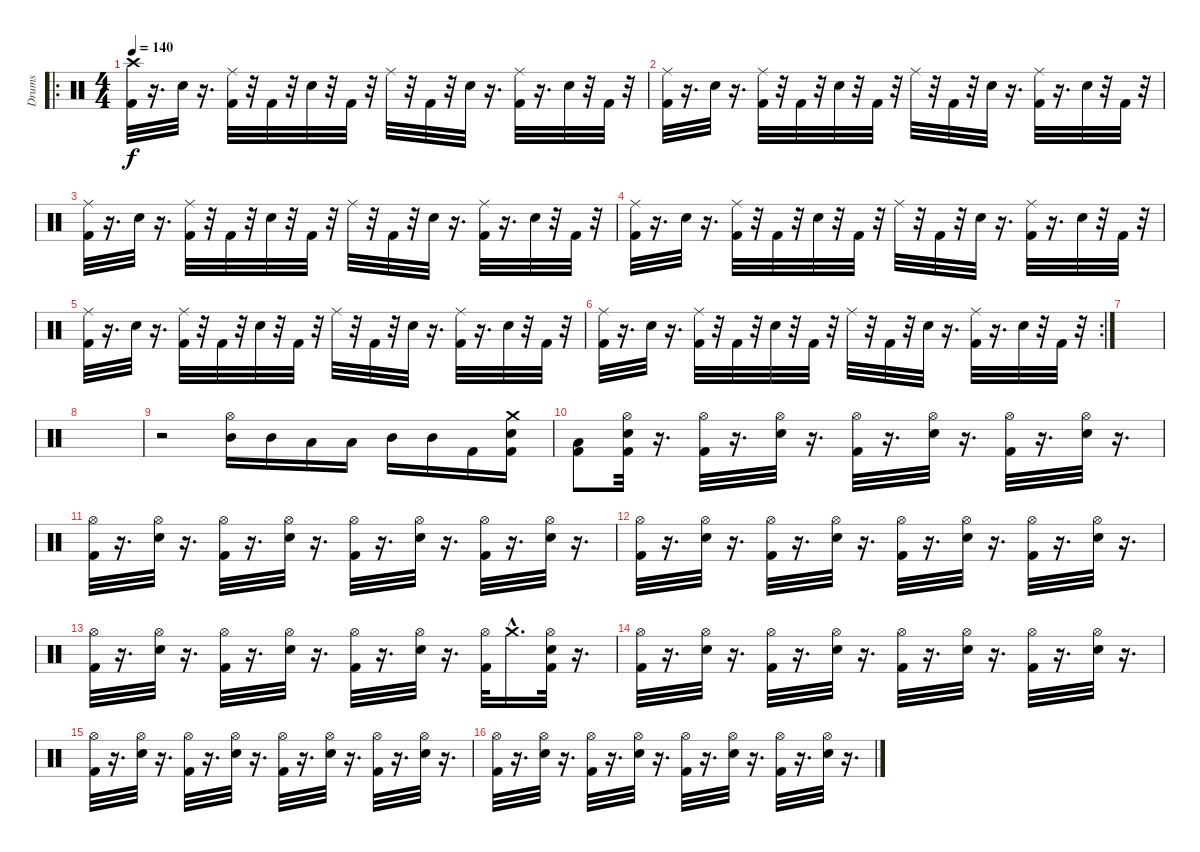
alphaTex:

\track ("Drums" "Drums") {instrument percussion}
\staff {score}
\articulation defaults
\ro
\ts (4 4)
\tempo 140
\clef neutral
\ks c
("Crash high (hit)" "Kick (hit) 2").32{dy f} r.16{d} "Electric Snare (hit)".32 r.16{d} ("Kick (hit) 2" "Ride (middle)").32 r.32 "Kick (hit) 2".32 r.32 "Electric Snare (hit)".32 r.32 "Kick (hit) 2".32 r.32 "Ride (middle)".32 r.32 "Kick (hit) 2".32 r.32 "Electric Snare (hit)".32 r.16{d} ("Kick (hit) 2" "Ride (middle)").32 r.16{d} "Electric Snare (hit)".32 r.32 "Kick (hit) 2".32 r.32 |
("Ride (middle)" "Kick (hit) 2").32 r.16{d} "Electric Snare (hit)".32 r.16{d} ("Kick (hit) 2" "Ride (middle)").32 r.32 "Kick (hit) 2".32 r.32 "Electric Snare (hit)".32 r.32 "Kick (hit) 2".32 r.32 "Ride (middle)".32 r.32 "Kick (hit) 2".32 r.32 "Electric Snare (hit)".32 r.16{d} ("Kick (hit) 2" "Ride (middle)").32 r.16{d} "Electric Snare (hit)".32 r.32 "Kick (hit) 2".32 r.32 |
("Ride (middle)" "Kick (hit) 2").32 r.16{d} "Electric Snare (hit)".32 r.16{d} ("Kick (hit) 2" "Ride (middle)").32 r.32 "Kick (hit) 2".32 r.32 "Electric Snare (hit)".32 r.32 "Kick (hit) 2".32 r.32 "Ride (middle)".32 r.32 "Kick (hit) 2".32 r.32 "Electric Snare (hit)".32 r.16{d} ("Kick (hit) 2" "Ride (middle)").32 r.16{d} "Electric Snare (hit)".32 r.32 "Kick (hit) 2".32 r.32 |
("Ride (middle)" "Kick (hit) 2").32 r.16{d} "Electric Snare (hit)".32 r.16{d} ("Kick (hit) 2" "Ride (middle)").32 r.32 "Kick (hit) 2".32 r.32 "Electric Snare (hit)".32 r.32 "Kick (hit) 2".32 r.32 "Ride (middle)".32 r.32 "Kick (hit) 2".32 r.32 "Electric Snare (hit)".32 r.16{d} ("Kick (hit) 2" "Ride (middle)").32 r.16{d} "Electric Snare (hit)".32 r.32 "Kick (hit) 2".32 r.32 |
("Ride (middle)" "Kick (hit) 2").32 r.16{d} "Electric Snare (hit)".32 r.16{d} ("Kick (hit) 2" "Ride (middle)").32 r.32 "Kick (hit) 2".32 r.32 "Electric Snare (hit)".32 r.32 "Kick (hit) 2".32 r.32 "Ride (middle)".32 r.32 "Kick (hit) 2".32 r.32 "Electric Snare (hit)".32 r.16{d} ("Kick (hit) 2" "Ride (middle)").32 r.16{d} "Electric Snare (hit)".32 r.32 "Kick (hit) 2".32 r.32 |
\rc 2
("Ride (middle)" "Kick (hit) 2").32 r.16{d} "Electric Snare (hit)".32 r.16{d} ("Kick (hit) 2" "Ride (middle)").32 r.32 "Kick (hit) 2".32 r.32 "Electric Snare (hit)".32 r.32 "Kick (hit) 2".32 r.32 "Ride (middle)".32 r.32 "Kick (hit) 2".32 r.32 "Electric Snare (hit)".32 r.16{d} ("Kick (hit) 2" "Ride (middle)").32 r.16{d} "Electric Snare (hit)".32 r.32 "Kick (hit) 2".32 r.32 |
|
|
r.2 ("Hi-Hat (open)" "Mid Tom (hit)").16 "Mid Tom (hit)".16 "Low Tom (hit)".16 "Low Tom (hit)".16 "Mid Tom (hit)".16 "Mid Tom (hit)".16 "Kick (hit) 2".16 ("Crash medium (hit)" "Electric Snare (hit)" "Kick (hit) 2").16 |
("Kick (hit) 2" "Low Tom (hit)").8 ("Hi-Hat (open)" "Kick (hit) 2" "Electric Snare (hit)").32 r.16{d} ("Hi-Hat (open)" "Kick (hit) 2").32 r.16{d} ("Hi-Hat (open)" "Electric Snare (hit)").32 r.16{d} ("Hi-Hat (open)" "Kick (hit) 2").32 r.16{d} ("Hi-Hat (open)" "Electric Snare (hit)").32 r.16{d} ("Hi-Hat (open)" "Kick (hit) 2").32 r.16{d} ("Hi-Hat (open)" "Electric Snare (hit)").32 r.16{d} |
("Hi-Hat (open)" "Kick (hit) 2").32 r.16{d} ("Hi-Hat (open)" "Electric Snare (hit)").32 r.16{d} ("Hi-Hat (open)" "Kick (hit) 2").32 r.16{d} ("Hi-Hat (open)" "Electric Snare (hit)").32 r.16{d} ("Hi-Hat (open)" "Kick (hit) 2").32 r.16{d} ("Hi-Hat (open)" "Electric Snare (hit)").32 r.16{d} ("Hi-Hat (open)" "Kick (hit) 2").32 r.16{d} ("Hi-Hat (open)" "Electric Snare (hit)").32 r.16{d} |
("Hi-Hat (open)" "Kick (hit) 2").32 r.16{d} ("Hi-Hat (open)" "Electric Snare (hit)").32 r.16{d} ("Hi-Hat (open)" "Kick (hit) 2").32 r.16{d} ("Hi-Hat (open)" "Electric Snare (hit)").32 r.16{d} ("Hi-Hat (open)" "Kick (hit) 2").32 r.16{d} ("Hi-Hat (open)" "Electric Snare (hit)").32 r.16{d} ("Hi-Hat (open)" "Kick (hit) 2").32 r.16{d} ("Hi-Hat (open)" "Electric Snare (hit)").32 r.16{d} |
("Hi-Hat (open)" "Kick (hit) 2").32 r.16{d} ("Hi-Hat (open)" "Electric Snare (hit)").32 r.16{d} ("Hi-Hat (open)" "Kick (hit) 2").32 r.16{d} ("Hi-Hat (open)" "Electric Snare (hit)").32 r.16{d} ("Hi-Hat (open)" "Kick (hit) 2").32 r.16{d} ("Hi-Hat (open)" "Electric Snare (hit)").32 r.16{d} ("Hi-Hat (open)" "Kick (hit) 2").32 "Crash medium (hit)"{hac}.16{d} ("Hi-Hat (open)" "Kick (hit) 2" "Electric Snare (hit)").32 r.16{d} |
("Hi-Hat (open)" "Kick (hit) 2").32 r.16{d} ("Hi-Hat (open)" "Electric Snare (hit)").32 r.16{d} ("Hi-Hat (open)" "Kick (hit) 2").32 r.16{d} ("Hi-Hat (open)" "Electric Snare (hit)").32 r.16{d} ("Hi-Hat (open)" "Kick (hit) 2").32 r.16{d} ("Hi-Hat (open)" "Electric Snare (hit)").32 r.16{d} ("Hi-Hat (open)" "Kick (hit) 2").32 r.16{d} ("Hi-Hat (open)" "Electric Snare (hit)").32 r.16{d} |
("Hi-Hat (open)" "Kick (hit) 2").32 r.16{d} ("Hi-Hat (open)" "Electric Snare (hit)").32 r.16{d} ("Hi-Hat (open)" "Kick (hit) 2").32 r.16{d} ("Hi-Hat (open)" "Electric Snare (hit)").32 r.16{d} ("Hi-Hat (open)" "Kick (hit) 2").32 r.16{d} ("Hi-Hat (open)" "Electric Snare (hit)").32 r.16{d} ("Hi-Hat (open)" "Kick (hit) 2").32 r.16{d} ("Hi-Hat (open)" "Electric Snare (hit)").32 r.16{d} |
("Hi-Hat (open)" "Kick (hit) 2").32 r.16{d} ("Hi-Hat (open)" "Electric Snare (hit)").32 r.16{d} ("Hi-Hat (open)" "Kick (hit) 2").32 r.16{d} ("Hi-Hat (open)" "Electric Snare (hit)").32 r.16{d} ("Hi-Hat (open)" "Kick (hit) 2").32 r.16{d} ("Hi-Hat (open)" "Electric Snare (hit)").32 r.16{d} ("Hi-Hat (open)" "Kick (hit) 2").32 r.16{d} ("Hi-Hat (open)" "Electric Snare (hit)").32 r.16{d}
